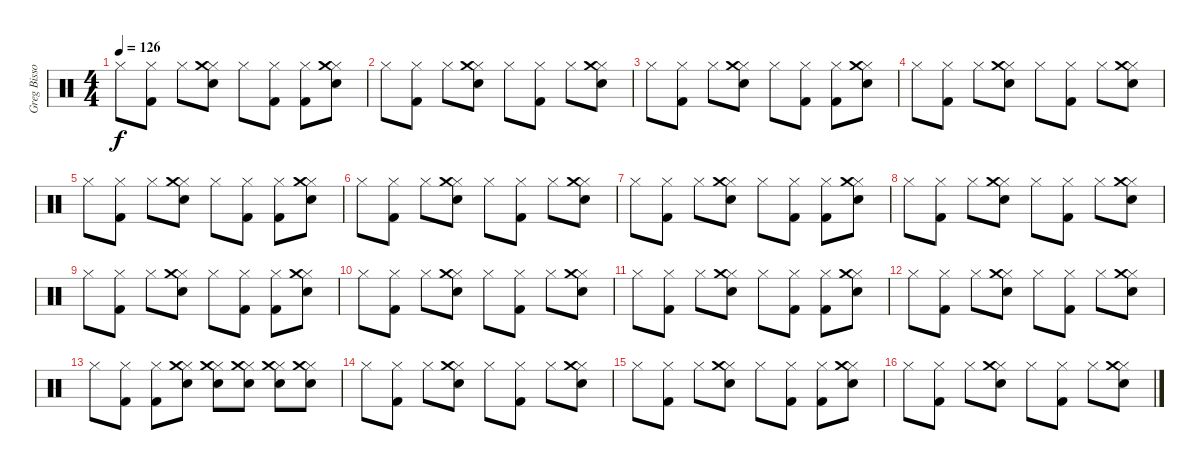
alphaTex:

\track ("Greg Bissonette - drums" "Greg Bisso") {instrument percussion}
\staff {score}
\articulation defaults
\ts (4 4)
\tempo 126
\clef neutral
\ks c "Hi-Hat (closed)".8{dy f}
("Hi-Hat (closed)" "Kick (hit) 2").8 "Hi-Hat (closed)".8 ("Hi-Hat (closed)" "Snare (hit) 2" "Crash medium (hit)").8 "Hi-Hat (closed)".8 ("Hi-Hat (closed)" "Kick (hit) 2").8 ("Hi-Hat (closed)" "Kick (hit) 2").8 ("Hi-Hat (closed)" "Snare (hit) 2" "Crash medium (hit)").8 |
"Hi-Hat (closed)".8 ("Hi-Hat (closed)" "Kick (hit) 2").8 "Hi-Hat (closed)".8 ("Hi-Hat (closed)" "Snare (hit) 2" "Crash medium (hit)").8 "Hi-Hat (closed)".8 ("Hi-Hat (closed)" "Kick (hit) 2").8 "Hi-Hat (closed)".8 ("Hi-Hat (closed)" "Snare (hit) 2" "Crash medium (hit)").8 |
"Hi-Hat (closed)".8 ("Hi-Hat (closed)" "Kick (hit) 2").8 "Hi-Hat (closed)".8 ("Hi-Hat (closed)" "Snare (hit) 2" "Crash medium (hit)").8 "Hi-Hat (closed)".8 ("Hi-Hat (closed)" "Kick (hit) 2").8 ("Hi-Hat (closed)" "Kick (hit) 2").8 ("Hi-Hat (closed)" "Snare (hit) 2" "Crash medium (hit)").8 |
"Hi-Hat (closed)".8 ("Hi-Hat (closed)" "Kick (hit) 2").8 "Hi-Hat (closed)".8 ("Hi-Hat (closed)" "Snare (hit) 2" "Crash medium (hit)").8 "Hi-Hat (closed)".8 ("Hi-Hat (closed)" "Kick (hit) 2").8 "Hi-Hat (closed)".8 ("Hi-Hat (closed)" "Snare (hit) 2" "Crash medium (hit)").8 |
"Hi-Hat (closed)".8 ("Hi-Hat (closed)" "Kick (hit) 2").8 "Hi-Hat (closed)".8 ("Hi-Hat (closed)" "Snare (hit) 2" "Crash medium (hit)").8 "Hi-Hat (closed)".8 ("Hi-Hat (closed)" "Kick (hit) 2").8 ("Hi-Hat (closed)" "Kick (hit) 2").8 ("Hi-Hat (closed)" "Snare (hit) 2" "Crash medium (hit)").8 |
"Hi-Hat (closed)".8 ("Hi-Hat (closed)" "Kick (hit) 2").8 "Hi-Hat (closed)".8 ("Hi-Hat (closed)" "Snare (hit) 2" "Crash medium (hit)").8 "Hi-Hat (closed)".8 ("Hi-Hat (closed)" "Kick (hit) 2").8 "Hi-Hat (closed)".8 ("Hi-Hat (closed)" "Snare (hit) 2" "Crash medium (hit)").8 |
"Hi-Hat (closed)".8 ("Hi-Hat (closed)" "Kick (hit) 2").8 "Hi-Hat (closed)".8 ("Hi-Hat (closed)" "Snare (hit) 2" "Crash medium (hit)").8 "Hi-Hat (closed)".8 ("Hi-Hat (closed)" "Kick (hit) 2").8 ("Hi-Hat (closed)" "Kick (hit) 2").8 ("Hi-Hat (closed)" "Snare (hit) 2" "Crash medium (hit)").8 |
"Hi-Hat (closed)".8 ("Hi-Hat (closed)" "Kick (hit) 2").8 "Hi-Hat (closed)".8 ("Hi-Hat (closed)" "Snare (hit) 2" "Crash medium (hit)").8 "Hi-Hat (closed)".8 ("Hi-Hat (closed)" "Kick (hit) 2").8 "Hi-Hat (closed)".8 ("Hi-Hat (closed)" "Snare (hit) 2" "Crash medium (hit)").8 |
"Hi-Hat (closed)".8 ("Hi-Hat (closed)" "Kick (hit) 2").8 "Hi-Hat (closed)".8 ("Hi-Hat (closed)" "Snare (hit) 2" "Crash medium (hit)").8 "Hi-Hat (closed)".8 ("Hi-Hat (closed)" "Kick (hit) 2").8 ("Hi-Hat (closed)" "Kick (hit) 2").8 ("Hi-Hat (closed)" "Snare (hit) 2" "Crash medium (hit)").8 |
"Hi-Hat (closed)".8 ("Hi-Hat (closed)" "Kick (hit) 2").8 "Hi-Hat (closed)".8 ("Hi-Hat (closed)" "Snare (hit) 2" "Crash medium (hit)").8 "Hi-Hat (closed)".8 ("Hi-Hat (closed)" "Kick (hit) 2").8 "Hi-Hat (closed)".8 ("Hi-Hat (closed)" "Snare (hit) 2" "Crash medium (hit)").8 |
"Hi-Hat (closed)".8 ("Hi-Hat (closed)" "Kick (hit) 2").8 "Hi-Hat (closed)".8 ("Hi-Hat (closed)" "Snare (hit) 2" "Crash medium (hit)").8 "Hi-Hat (closed)".8 ("Hi-Hat (closed)" "Kick (hit) 2").8 ("Hi-Hat (closed)" "Kick (hit) 2").8 ("Hi-Hat (closed)" "Snare (hit) 2" "Crash medium (hit)").8 |
"Hi-Hat (closed)".8 ("Hi-Hat (closed)" "Kick (hit) 2").8 "Hi-Hat (closed)".8 ("Hi-Hat (closed)" "Snare (hit) 2" "Crash medium (hit)").8 "Hi-Hat (closed)".8 ("Hi-Hat (closed)" "Kick (hit) 2").8 "Hi-Hat (closed)".8 ("Hi-Hat (closed)" "Snare (hit) 2" "Crash medium (hit)").8 |
"Hi-Hat (closed)".8 ("Hi-Hat (closed)" "Kick (hit) 2").8 ("Hi-Hat (closed)" "Kick (hit) 2").8 ("Hi-Hat (closed)" "Snare (hit) 2" "Crash medium (hit)").8 ("Hi-Hat (closed)" "Snare (hit) 2" "Crash medium (hit)").8 ("Hi-Hat (closed)" "Snare (hit) 2" "Crash medium (hit)").8 ("Hi-Hat (closed)" "Snare (hit) 2" "Crash medium (hit)").8 ("Hi-Hat (closed)" "Snare (hit) 2" "Crash medium (hit)").8 |
"Hi-Hat (closed)".8 ("Hi-Hat (closed)" "Kick (hit) 2").8 "Hi-Hat (closed)".8 ("Hi-Hat (closed)" "Snare (hit) 2" "Crash medium (hit)").8 "Hi-Hat (closed)".8 ("Hi-Hat (closed)" "Kick (hit) 2").8 "Hi-Hat (closed)".8 ("Hi-Hat (closed)" "Snare (hit) 2" "Crash medium (hit)").8 |
"Hi-Hat (closed)".8 ("Hi-Hat (closed)" "Kick (hit) 2").8 "Hi-Hat (closed)".8 ("Hi-Hat (closed)" "Snare (hit) 2" "Crash medium (hit)").8 "Hi-Hat (closed)".8 ("Hi-Hat (closed)" "Kick (hit) 2").8 ("Hi-Hat (closed)" "Kick (hit) 2").8 ("Hi-Hat (closed)" "Snare (hit) 2" "Crash medium (hit)").8 |
"Hi-Hat (closed)".8 ("Hi-Hat (closed)" "Kick (hit) 2").8 "Hi-Hat (closed)".8 ("Hi-Hat (closed)" "Snare (hit) 2" "Crash medium (hit)").8 "Hi-Hat (closed)".8 ("Hi-Hat (closed)" "Kick (hit) 2").8 "Hi-Hat (closed)".8 ("Hi-Hat (closed)" "Snare (hit) 2" "Crash medium (hit)").8
